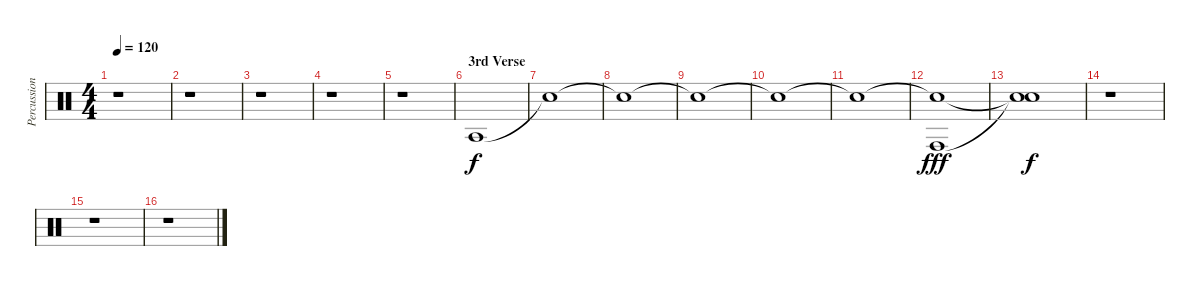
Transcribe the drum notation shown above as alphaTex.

\track ("Percussion" "Percussion") {instrument percussion}
\staff {score}
\articulation defaults
\ts (4 4)
\tempo 120
\clef neutral
\ks c
r.1{dy f} |
r.1 |
r.1 |
r.1 |
r.1 |
\section ("" "3rd Verse")
"Agogo tow (hit)".1{volume 16} |
"Snare (hit)"{t}.1 |
"Snare (hit)"{t}.1 |
"Snare (hit)"{t}.1 |
"Snare (hit)"{t}.1 |
"Snare (hit)"{t}.1 |
("Snare (hit)"{t} "Conga high (hit)").1{dy fff} |
("Snare (hit)"{t} "Snare (hit)"{t}).1{dy f} |
r.1 |
r.1 |
r.1
